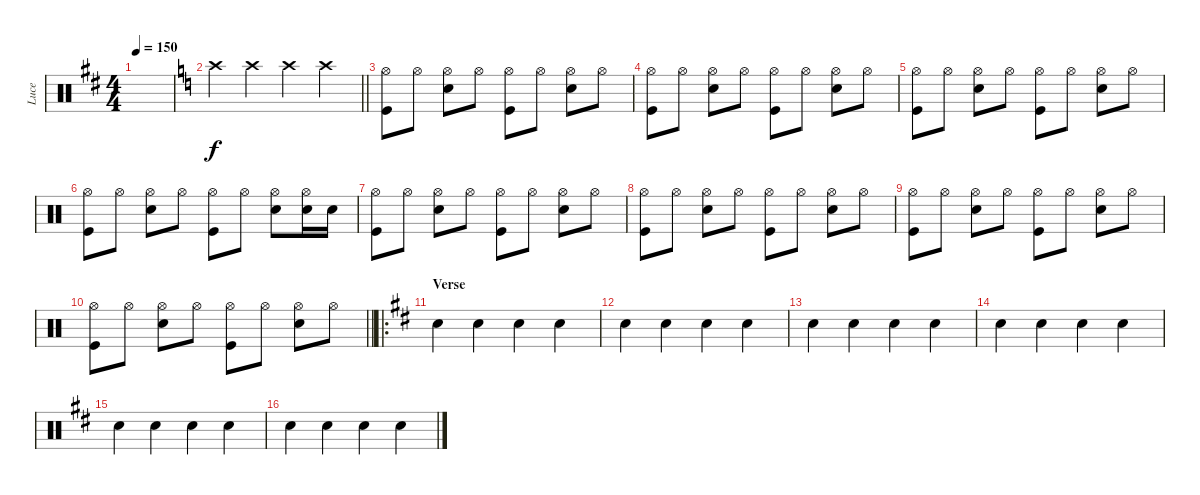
\track ("Luce" "Luce") {instrument percussion}
\staff {score}
\articulation defaults
\ts (4 4)
\tempo 150
\clef neutral
\ks d
|
\barLineRight lightlight
\ks c "Crash high (hit)".4 "Crash high (hit)".4 "Crash high (hit)".4 "Crash high (hit)".4
|
("Hi-Hat (open)" "Kick (hit)").8 "Hi-Hat (open)".8 ("Hi-Hat (open)" "Snare (hit) 2").8 "Hi-Hat (open)".8 ("Hi-Hat (open)" "Kick (hit)").8 "Hi-Hat (open)".8 ("Hi-Hat (open)" "Snare (hit) 2").8 "Hi-Hat (open)".8 |
("Hi-Hat (open)" "Kick (hit)").8 "Hi-Hat (open)".8 ("Hi-Hat (open)" "Snare (hit) 2").8 "Hi-Hat (open)".8 ("Hi-Hat (open)" "Kick (hit)").8 "Hi-Hat (open)".8 ("Hi-Hat (open)" "Snare (hit) 2").8 "Hi-Hat (open)".8 |
("Hi-Hat (open)" "Kick (hit)").8 "Hi-Hat (open)".8 ("Hi-Hat (open)" "Snare (hit) 2").8 "Hi-Hat (open)".8 ("Hi-Hat (open)" "Kick (hit)").8 "Hi-Hat (open)".8 ("Hi-Hat (open)" "Snare (hit) 2").8 "Hi-Hat (open)".8 |
("Hi-Hat (open)" "Kick (hit)").8 "Hi-Hat (open)".8 ("Hi-Hat (open)" "Snare (hit) 2").8 "Hi-Hat (open)".8 ("Hi-Hat (open)" "Kick (hit)").8 "Hi-Hat (open)".8 ("Hi-Hat (open)" "Snare (hit) 2").8 ("Hi-Hat (open)" "Snare (hit) 2").16 "Snare (hit) 2".16 |
("Hi-Hat (open)" "Kick (hit)").8 "Hi-Hat (open)".8 ("Hi-Hat (open)" "Snare (hit) 2").8 "Hi-Hat (open)".8 ("Hi-Hat (open)" "Kick (hit)").8 "Hi-Hat (open)".8 ("Hi-Hat (open)" "Snare (hit) 2").8 "Hi-Hat (open)".8 |
("Hi-Hat (open)" "Kick (hit)").8 "Hi-Hat (open)".8 ("Hi-Hat (open)" "Snare (hit) 2").8 "Hi-Hat (open)".8 ("Hi-Hat (open)" "Kick (hit)").8 "Hi-Hat (open)".8 ("Hi-Hat (open)" "Snare (hit) 2").8 "Hi-Hat (open)".8 |
("Hi-Hat (open)" "Kick (hit)").8 "Hi-Hat (open)".8 ("Hi-Hat (open)" "Snare (hit) 2").8 "Hi-Hat (open)".8 ("Hi-Hat (open)" "Kick (hit)").8 "Hi-Hat (open)".8 ("Hi-Hat (open)" "Snare (hit) 2").8 "Hi-Hat (open)".8 |
\barLineRight lightlight
("Hi-Hat (open)" "Kick (hit)").8 "Hi-Hat (open)".8 ("Hi-Hat (open)" "Snare (hit) 2").8 "Hi-Hat (open)".8 ("Hi-Hat (open)" "Kick (hit)").8 "Hi-Hat (open)".8 ("Hi-Hat (open)" "Snare (hit) 2").8 "Hi-Hat (open)".8 |
\ro
\section ("" "Verse ")
\ks d "Snare (hit) 2".4 "Snare (hit) 2".4 "Snare (hit) 2".4 "Snare (hit) 2".4
|
"Snare (hit) 2".4 "Snare (hit) 2".4 "Snare (hit) 2".4 "Snare (hit) 2".4 |
"Snare (hit) 2".4 "Snare (hit) 2".4 "Snare (hit) 2".4 "Snare (hit) 2".4 |
"Snare (hit) 2".4 "Snare (hit) 2".4 "Snare (hit) 2".4 "Snare (hit) 2".4 |
"Snare (hit) 2".4 "Snare (hit) 2".4 "Snare (hit) 2".4 "Snare (hit) 2".4 |
"Snare (hit) 2".4 "Snare (hit) 2".4 "Snare (hit) 2".4 "Snare (hit) 2".4
